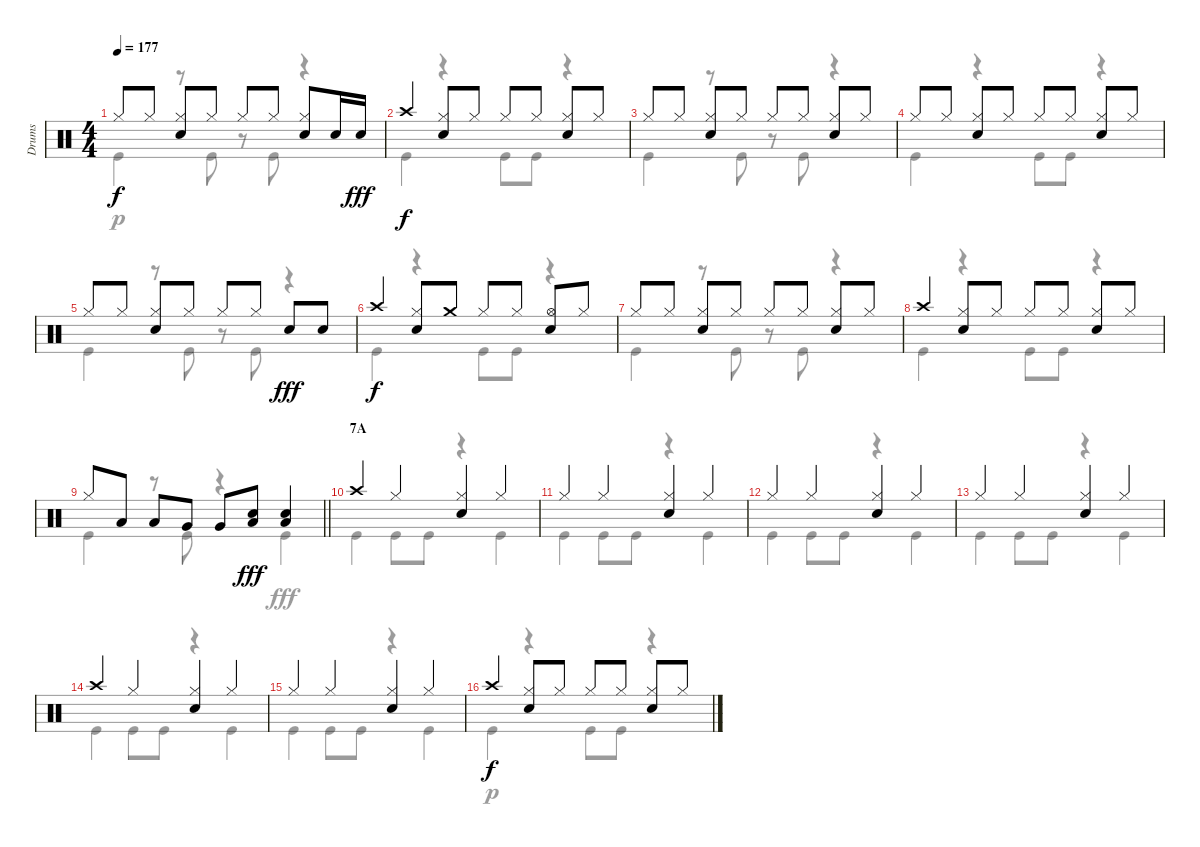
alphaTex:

\track ("Drums" "Drums") {instrument percussion}
\staff {score}
\articulation defaults
\voice
\ts (4 4)
\tempo 177
\clef neutral
\ks c "Hi-Hat (closed)".8{dy f} "Hi-Hat (closed)".8
("Hi-Hat (closed)" "Snare (hit) 2").8 "Hi-Hat (closed)".8 "Hi-Hat (closed)".8 "Hi-Hat (closed)".8 ("Hi-Hat (closed)" "Snare (hit) 2").8 "Snare (hit) 2".16 "Snare (hit) 2".16{dy fff} |
"Crash high (hit)".4{dy f} ("Hi-Hat (closed)" "Snare (hit) 2").8 "Hi-Hat (closed)".8 "Hi-Hat (closed)".8 "Hi-Hat (closed)".8 ("Hi-Hat (closed)" "Snare (hit) 2").8 "Hi-Hat (closed)".8 |
"Hi-Hat (closed)".8 "Hi-Hat (closed)".8 ("Hi-Hat (closed)" "Snare (hit) 2").8 "Hi-Hat (closed)".8 "Hi-Hat (closed)".8 "Hi-Hat (closed)".8 ("Hi-Hat (closed)" "Snare (hit) 2").8 "Hi-Hat (closed)".8 |
"Hi-Hat (closed)".8 "Hi-Hat (closed)".8 ("Hi-Hat (closed)" "Snare (hit) 2").8 "Hi-Hat (closed)".8 "Hi-Hat (closed)".8 "Hi-Hat (closed)".8 ("Hi-Hat (closed)" "Snare (hit) 2").8 "Hi-Hat (closed)".8 |
"Hi-Hat (closed)".8 "Hi-Hat (closed)".8 ("Hi-Hat (closed)" "Snare (hit) 2").8 "Hi-Hat (closed)".8 "Hi-Hat (closed)".8 "Hi-Hat (closed)".8 "Snare (hit) 2".8{dy fff} "Snare (hit) 2".8 |
"Crash high (hit)".4{dy f} ("Hi-Hat (closed)" "Snare (hit) 2").8 "Crash medium (hit)".8 "Hi-Hat (closed)".8 "Hi-Hat (closed)".8 ("Hi-Hat (open)" "Snare (hit) 2").8 "Hi-Hat (closed)".8 |
"Hi-Hat (closed)".8 "Hi-Hat (closed)".8 ("Hi-Hat (closed)" "Snare (hit) 2").8 "Hi-Hat (closed)".8 "Hi-Hat (closed)".8 "Hi-Hat (closed)".8 ("Hi-Hat (closed)" "Snare (hit) 2").8 "Hi-Hat (closed)".8 |
"Crash high (hit)".4 ("Hi-Hat (closed)" "Snare (hit) 2").8 "Hi-Hat (closed)".8 "Hi-Hat (closed)".8 "Hi-Hat (closed)".8 ("Hi-Hat (closed)" "Snare (hit) 2").8 "Hi-Hat (closed)".8 |
\barLineRight lightlight "Hi-Hat (closed)".8 "Low Tom (hit)".8 "Low Tom (hit)".8 "Very Low Tom (hit)".8 "Very Low Tom (hit)".8
("Low Tom (hit)" "Snare (hit) 2").8{dy fff} ("Low Tom (hit)" "Snare (hit) 2").4 |
\section ("" "7A")
"Crash high (hit)".4 "Hi-Hat (closed)".4 ("Hi-Hat (closed)" "Snare (hit) 2").4 "Hi-Hat (closed)".4 |
"Hi-Hat (closed)".4 "Hi-Hat (closed)".4 ("Hi-Hat (closed)" "Snare (hit) 2").4 "Hi-Hat (closed)".4 |
"Hi-Hat (closed)".4 "Hi-Hat (closed)".4 ("Hi-Hat (closed)" "Snare (hit) 2").4 "Hi-Hat (closed)".4 |
"Hi-Hat (closed)".4 "Hi-Hat (closed)".4 ("Hi-Hat (closed)" "Snare (hit) 2").4 "Hi-Hat (closed)".4 |
"Crash high (hit)".4 "Hi-Hat (closed)".4 ("Hi-Hat (closed)" "Snare (hit) 2").4 "Hi-Hat (closed)".4 |
"Hi-Hat (closed)".4 "Hi-Hat (closed)".4 ("Hi-Hat (closed)" "Snare (hit) 2").4 "Hi-Hat (closed)".4 |
"Crash high (hit)".4{dy f} ("Hi-Hat (closed)" "Snare (hit) 2").8 "Hi-Hat (closed)".8 "Hi-Hat (closed)".8 "Hi-Hat (closed)".8 ("Hi-Hat (closed)" "Snare (hit) 2").8 "Hi-Hat (closed)".8
\voice
\clef neutral
\ottava regular
\simile none
\ks c "Kick (hit)".4{dy p}
r.8 "Kick (hit)".8 r.8 "Kick (hit)".8 r.4 |
"Kick (hit)".4 r.4 "Kick (hit)".8 "Kick (hit)".8 r.4 |
"Kick (hit)".4 r.8 "Kick (hit)".8 r.8 "Kick (hit)".8 r.4 |
"Kick (hit)".4 r.4 "Kick (hit)".8 "Kick (hit)".8 r.4 |
"Kick (hit)".4 r.8 "Kick (hit)".8 r.8 "Kick (hit)".8 r.4 |
"Kick (hit)".4 r.4 "Kick (hit)".8 "Kick (hit)".8 r.4 |
"Kick (hit)".4 r.8 "Kick (hit)".8 r.8 "Kick (hit)".8 r.4 |
"Kick (hit)".4 r.4 "Kick (hit)".8 "Kick (hit)".8 r.4 |
\barLineRight lightlight "Kick (hit)".4
r.8 "Kick (hit)".8 r.4 "Kick (hit)".4{dy fff} |
"Kick (hit)".4 "Kick (hit)".8 "Kick (hit)".8 r.4 "Kick (hit)".4 |
"Kick (hit)".4 "Kick (hit)".8 "Kick (hit)".8 r.4 "Kick (hit)".4 |
"Kick (hit)".4 "Kick (hit)".8 "Kick (hit)".8 r.4 "Kick (hit)".4 |
"Kick (hit)".4 "Kick (hit)".8 "Kick (hit)".8 r.4 "Kick (hit)".4 |
"Kick (hit)".4 "Kick (hit)".8 "Kick (hit)".8 r.4 "Kick (hit)".4 |
"Kick (hit)".4 "Kick (hit)".8 "Kick (hit)".8 r.4 "Kick (hit)".4 |
"Kick (hit)".4{dy p} r.4 "Kick (hit)".8 "Kick (hit)".8 r.4
